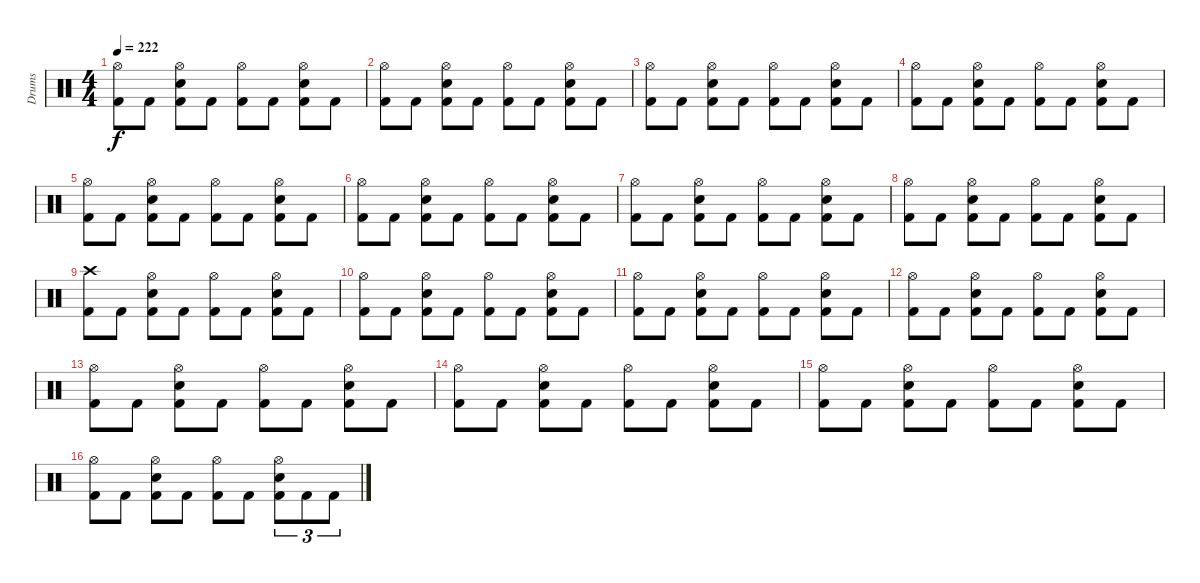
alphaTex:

\track ("Drums" "Drums") {instrument percussion}
\staff {score}
\articulation defaults
\ts (4 4)
\tempo 222
\clef neutral
\ks c
("Hi-Hat (open)" "Kick (hit) 2").8{dy f} "Kick (hit) 2".8 ("Hi-Hat (open)" "Electric Snare (hit)" "Kick (hit) 2").8 "Kick (hit) 2".8 ("Hi-Hat (open)" "Kick (hit) 2").8 "Kick (hit) 2".8 ("Hi-Hat (open)" "Electric Snare (hit)" "Kick (hit) 2").8 "Kick (hit) 2".8 |
("Hi-Hat (open)" "Kick (hit) 2").8 "Kick (hit) 2".8 ("Hi-Hat (open)" "Electric Snare (hit)" "Kick (hit) 2").8 "Kick (hit) 2".8 ("Hi-Hat (open)" "Kick (hit) 2").8 "Kick (hit) 2".8 ("Hi-Hat (open)" "Electric Snare (hit)" "Kick (hit) 2").8 "Kick (hit) 2".8 |
("Hi-Hat (open)" "Kick (hit) 2").8 "Kick (hit) 2".8 ("Hi-Hat (open)" "Electric Snare (hit)" "Kick (hit) 2").8 "Kick (hit) 2".8 ("Hi-Hat (open)" "Kick (hit) 2").8 "Kick (hit) 2".8 ("Hi-Hat (open)" "Electric Snare (hit)" "Kick (hit) 2").8 "Kick (hit) 2".8 |
("Hi-Hat (open)" "Kick (hit) 2").8 "Kick (hit) 2".8 ("Hi-Hat (open)" "Electric Snare (hit)" "Kick (hit) 2").8 "Kick (hit) 2".8 ("Hi-Hat (open)" "Kick (hit) 2").8 "Kick (hit) 2".8 ("Hi-Hat (open)" "Electric Snare (hit)" "Kick (hit) 2").8 "Kick (hit) 2".8 |
("Hi-Hat (open)" "Kick (hit) 2").8 "Kick (hit) 2".8 ("Hi-Hat (open)" "Electric Snare (hit)" "Kick (hit) 2").8 "Kick (hit) 2".8 ("Hi-Hat (open)" "Kick (hit) 2").8 "Kick (hit) 2".8 ("Hi-Hat (open)" "Electric Snare (hit)" "Kick (hit) 2").8 "Kick (hit) 2".8 |
("Hi-Hat (open)" "Kick (hit) 2").8 "Kick (hit) 2".8 ("Hi-Hat (open)" "Electric Snare (hit)" "Kick (hit) 2").8 "Kick (hit) 2".8 ("Hi-Hat (open)" "Kick (hit) 2").8 "Kick (hit) 2".8 ("Hi-Hat (open)" "Electric Snare (hit)" "Kick (hit) 2").8 "Kick (hit) 2".8 |
("Hi-Hat (open)" "Kick (hit) 2").8 "Kick (hit) 2".8 ("Hi-Hat (open)" "Electric Snare (hit)" "Kick (hit) 2").8 "Kick (hit) 2".8 ("Hi-Hat (open)" "Kick (hit) 2").8 "Kick (hit) 2".8 ("Hi-Hat (open)" "Electric Snare (hit)" "Kick (hit) 2").8 "Kick (hit) 2".8 |
("Hi-Hat (open)" "Kick (hit) 2").8 "Kick (hit) 2".8 ("Hi-Hat (open)" "Electric Snare (hit)" "Kick (hit) 2").8 "Kick (hit) 2".8 ("Hi-Hat (open)" "Kick (hit) 2").8 "Kick (hit) 2".8 ("Hi-Hat (open)" "Electric Snare (hit)" "Kick (hit) 2").8 "Kick (hit) 2".8 |
("Crash high (hit)" "Kick (hit) 2").8 "Kick (hit) 2".8 ("Hi-Hat (open)" "Electric Snare (hit)" "Kick (hit) 2").8 "Kick (hit) 2".8 ("Hi-Hat (open)" "Kick (hit) 2").8 "Kick (hit) 2".8 ("Hi-Hat (open)" "Electric Snare (hit)" "Kick (hit) 2").8 "Kick (hit) 2".8 |
("Hi-Hat (open)" "Kick (hit) 2").8 "Kick (hit) 2".8 ("Hi-Hat (open)" "Electric Snare (hit)" "Kick (hit) 2").8 "Kick (hit) 2".8 ("Hi-Hat (open)" "Kick (hit) 2").8 "Kick (hit) 2".8 ("Hi-Hat (open)" "Electric Snare (hit)" "Kick (hit) 2").8 "Kick (hit) 2".8 |
("Hi-Hat (open)" "Kick (hit) 2").8 "Kick (hit) 2".8 ("Hi-Hat (open)" "Electric Snare (hit)" "Kick (hit) 2").8 "Kick (hit) 2".8 ("Hi-Hat (open)" "Kick (hit) 2").8 "Kick (hit) 2".8 ("Hi-Hat (open)" "Electric Snare (hit)" "Kick (hit) 2").8 "Kick (hit) 2".8 |
("Hi-Hat (open)" "Kick (hit) 2").8 "Kick (hit) 2".8 ("Hi-Hat (open)" "Electric Snare (hit)" "Kick (hit) 2").8 "Kick (hit) 2".8 ("Hi-Hat (open)" "Kick (hit) 2").8 "Kick (hit) 2".8 ("Hi-Hat (open)" "Electric Snare (hit)" "Kick (hit) 2").8 "Kick (hit) 2".8 |
("Hi-Hat (open)" "Kick (hit) 2").8 "Kick (hit) 2".8 ("Hi-Hat (open)" "Electric Snare (hit)" "Kick (hit) 2").8 "Kick (hit) 2".8 ("Hi-Hat (open)" "Kick (hit) 2").8 "Kick (hit) 2".8 ("Hi-Hat (open)" "Electric Snare (hit)" "Kick (hit) 2").8 "Kick (hit) 2".8 |
("Hi-Hat (open)" "Kick (hit) 2").8 "Kick (hit) 2".8 ("Hi-Hat (open)" "Electric Snare (hit)" "Kick (hit) 2").8 "Kick (hit) 2".8 ("Hi-Hat (open)" "Kick (hit) 2").8 "Kick (hit) 2".8 ("Hi-Hat (open)" "Electric Snare (hit)" "Kick (hit) 2").8 "Kick (hit) 2".8 |
("Hi-Hat (open)" "Kick (hit) 2").8 "Kick (hit) 2".8 ("Hi-Hat (open)" "Electric Snare (hit)" "Kick (hit) 2").8 "Kick (hit) 2".8 ("Hi-Hat (open)" "Kick (hit) 2").8 "Kick (hit) 2".8 ("Hi-Hat (open)" "Electric Snare (hit)" "Kick (hit) 2").8 "Kick (hit) 2".8 |
("Hi-Hat (open)" "Kick (hit) 2").8 "Kick (hit) 2".8 ("Hi-Hat (open)" "Electric Snare (hit)" "Kick (hit) 2").8 "Kick (hit) 2".8 ("Hi-Hat (open)" "Kick (hit) 2").8 "Kick (hit) 2".8 ("Hi-Hat (open)" "Electric Snare (hit)" "Kick (hit) 2").8{tu (3 2)} "Kick (hit) 2".8{tu (3 2)} "Kick (hit) 2".8{tu (3 2)}
